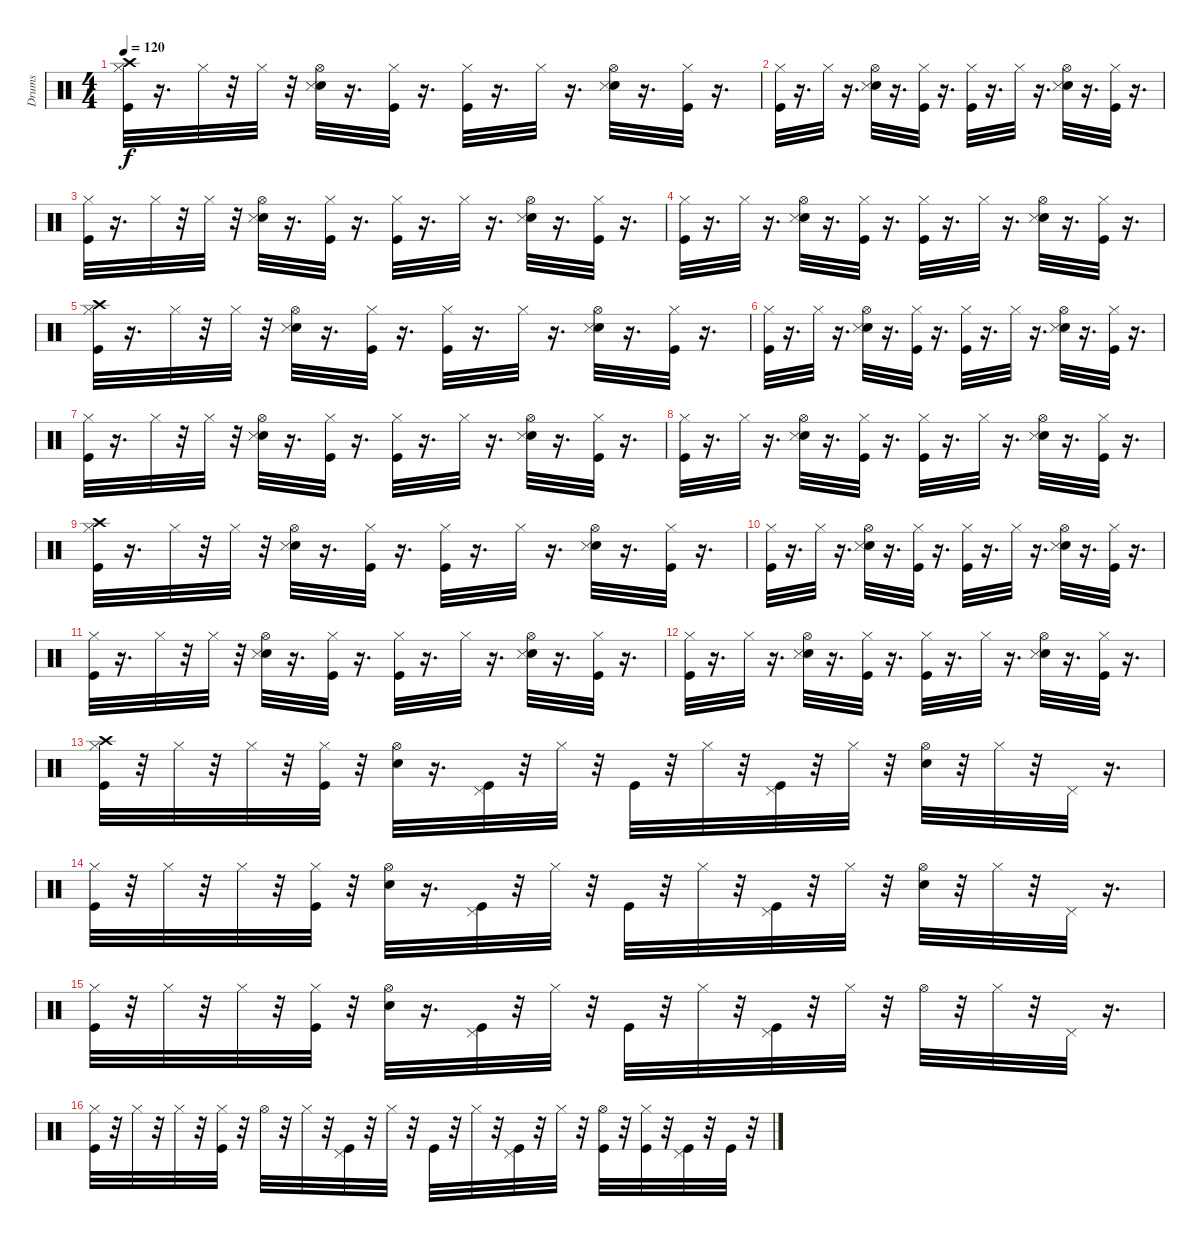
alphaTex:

\track ("Drums" "Drums") {instrument percussion}
\staff {score}
\articulation defaults
\ts (4 4)
\tempo 120
\clef neutral
\ks c
("Crash high (hit)" "Hi-Hat (closed)" "Kick (hit)").32{dy f} r.16{d} "Hi-Hat (closed)".32 r.32 "Hi-Hat (closed)".32 r.32 ("Snare (hit) 2" "Hi-Hat (open)" "Snare (side stick) 3").32 r.16{d} ("Hi-Hat (closed)" "Kick (hit)").32 r.16{d} ("Hi-Hat (closed)" "Kick (hit)").32 r.16{d} "Hi-Hat (closed)".32 r.16{d} ("Snare (hit) 2" "Hi-Hat (open)" "Snare (side stick) 3").32 r.16{d} ("Kick (hit)" "Hi-Hat (closed)").32 r.16{d} |
("Hi-Hat (closed)" "Kick (hit)").32 r.16{d} "Hi-Hat (closed)".32 r.16{d} ("Snare (hit) 2" "Hi-Hat (open)" "Snare (side stick) 3").32 r.16{d} ("Hi-Hat (closed)" "Kick (hit)").32 r.16{d} ("Hi-Hat (closed)" "Kick (hit)").32 r.16{d} "Hi-Hat (closed)".32 r.16{d} ("Snare (hit) 2" "Hi-Hat (open)" "Snare (side stick) 3").32 r.16{d} ("Kick (hit)" "Hi-Hat (closed)").32 r.16{d} |
("Hi-Hat (closed)" "Kick (hit)").32 r.16{d} "Hi-Hat (closed)".32 r.32 "Hi-Hat (closed)".32 r.32 ("Snare (hit) 2" "Hi-Hat (open)" "Snare (side stick) 3").32 r.16{d} ("Hi-Hat (closed)" "Kick (hit)").32 r.16{d} ("Hi-Hat (closed)" "Kick (hit)").32 r.16{d} "Hi-Hat (closed)".32 r.16{d} ("Snare (hit) 2" "Hi-Hat (open)" "Snare (side stick) 3").32 r.16{d} ("Kick (hit)" "Hi-Hat (closed)").32 r.16{d} |
("Hi-Hat (closed)" "Kick (hit)").32 r.16{d} "Hi-Hat (closed)".32 r.16{d} ("Snare (hit) 2" "Hi-Hat (open)" "Snare (side stick) 3").32 r.16{d} ("Hi-Hat (closed)" "Kick (hit)").32 r.16{d} ("Hi-Hat (closed)" "Kick (hit)").32 r.16{d} "Hi-Hat (closed)".32 r.16{d} ("Snare (hit) 2" "Hi-Hat (open)" "Snare (side stick) 3").32 r.16{d} ("Kick (hit)" "Hi-Hat (closed)").32 r.16{d} |
("Crash high (hit)" "Hi-Hat (closed)" "Kick (hit)").32 r.16{d} "Hi-Hat (closed)".32 r.32 "Hi-Hat (closed)".32 r.32 ("Snare (hit) 2" "Hi-Hat (open)" "Snare (side stick) 3").32 r.16{d} ("Hi-Hat (closed)" "Kick (hit)").32 r.16{d} ("Hi-Hat (closed)" "Kick (hit)").32 r.16{d} "Hi-Hat (closed)".32 r.16{d} ("Snare (hit) 2" "Hi-Hat (open)" "Snare (side stick) 3").32 r.16{d} ("Kick (hit)" "Hi-Hat (closed)").32 r.16{d} |
("Hi-Hat (closed)" "Kick (hit)").32 r.16{d} "Hi-Hat (closed)".32 r.16{d} ("Snare (hit) 2" "Hi-Hat (open)" "Snare (side stick) 3").32 r.16{d} ("Hi-Hat (closed)" "Kick (hit)").32 r.16{d} ("Hi-Hat (closed)" "Kick (hit)").32 r.16{d} "Hi-Hat (closed)".32 r.16{d} ("Snare (hit) 2" "Hi-Hat (open)" "Snare (side stick) 3").32 r.16{d} ("Kick (hit)" "Hi-Hat (closed)").32 r.16{d} |
("Hi-Hat (closed)" "Kick (hit)").32 r.16{d} "Hi-Hat (closed)".32 r.32 "Hi-Hat (closed)".32 r.32 ("Snare (hit) 2" "Hi-Hat (open)" "Snare (side stick) 3").32 r.16{d} ("Hi-Hat (closed)" "Kick (hit)").32 r.16{d} ("Hi-Hat (closed)" "Kick (hit)").32 r.16{d} "Hi-Hat (closed)".32 r.16{d} ("Snare (hit) 2" "Hi-Hat (open)" "Snare (side stick) 3").32 r.16{d} ("Kick (hit)" "Hi-Hat (closed)").32 r.16{d} |
("Hi-Hat (closed)" "Kick (hit)").32 r.16{d} "Hi-Hat (closed)".32 r.16{d} ("Snare (hit) 2" "Hi-Hat (open)" "Snare (side stick) 3").32 r.16{d} ("Hi-Hat (closed)" "Kick (hit)").32 r.16{d} ("Hi-Hat (closed)" "Kick (hit)").32 r.16{d} "Hi-Hat (closed)".32 r.16{d} ("Snare (hit) 2" "Hi-Hat (open)" "Snare (side stick) 3").32 r.16{d} ("Kick (hit)" "Hi-Hat (closed)").32 r.16{d} |
("Crash high (hit)" "Hi-Hat (closed)" "Kick (hit)").32 r.16{d} "Hi-Hat (closed)".32 r.32 "Hi-Hat (closed)".32 r.32 ("Snare (hit) 2" "Hi-Hat (open)" "Snare (side stick) 3").32 r.16{d} ("Hi-Hat (closed)" "Kick (hit)").32 r.16{d} ("Hi-Hat (closed)" "Kick (hit)").32 r.16{d} "Hi-Hat (closed)".32 r.16{d} ("Snare (hit) 2" "Hi-Hat (open)" "Snare (side stick) 3").32 r.16{d} ("Kick (hit)" "Hi-Hat (closed)").32 r.16{d} |
("Hi-Hat (closed)" "Kick (hit)").32 r.16{d} "Hi-Hat (closed)".32 r.16{d} ("Snare (hit) 2" "Hi-Hat (open)" "Snare (side stick) 3").32 r.16{d} ("Hi-Hat (closed)" "Kick (hit)").32 r.16{d} ("Hi-Hat (closed)" "Kick (hit)").32 r.16{d} "Hi-Hat (closed)".32 r.16{d} ("Snare (hit) 2" "Hi-Hat (open)" "Snare (side stick) 3").32 r.16{d} ("Kick (hit)" "Hi-Hat (closed)").32 r.16{d} |
("Hi-Hat (closed)" "Kick (hit)").32 r.16{d} "Hi-Hat (closed)".32 r.32 "Hi-Hat (closed)".32 r.32 ("Snare (hit) 2" "Hi-Hat (open)" "Snare (side stick) 3").32 r.16{d} ("Hi-Hat (closed)" "Kick (hit)").32 r.16{d} ("Hi-Hat (closed)" "Kick (hit)").32 r.16{d} "Hi-Hat (closed)".32 r.16{d} ("Snare (hit) 2" "Hi-Hat (open)" "Snare (side stick) 3").32 r.16{d} ("Kick (hit)" "Hi-Hat (closed)").32 r.16{d} |
("Hi-Hat (closed)" "Kick (hit)").32 r.16{d} "Hi-Hat (closed)".32 r.16{d} ("Snare (hit) 2" "Hi-Hat (open)" "Snare (side stick) 3").32 r.16{d} ("Hi-Hat (closed)" "Kick (hit)").32 r.16{d} ("Hi-Hat (closed)" "Kick (hit)").32 r.16{d} "Hi-Hat (closed)".32 r.16{d} ("Snare (hit) 2" "Hi-Hat (open)" "Snare (side stick) 3").32 r.16{d} ("Kick (hit)" "Hi-Hat (closed)").32 r.16{d} |
("Crash high (hit)" "Hi-Hat (closed)" "Kick (hit)").32 r.32 "Hi-Hat (closed)".32 r.32 "Hi-Hat (closed)".32 r.32 ("Kick (hit)" "Hi-Hat (closed)").32 r.32 ("Hi-Hat (open)" "Snare (hit) 2").32 r.16{d} ("Pedal Hi-Hat (hit)" "Kick (hit)").32 r.32 "Hi-Hat (closed)".32 r.32 "Kick (hit)".32 r.32 "Hi-Hat (closed)".32 r.32 ("Kick (hit)" "Pedal Hi-Hat (hit)").32 r.32 "Hi-Hat (closed)".32 r.32 ("Hi-Hat (open)" "Snare (hit) 2").32 r.32 "Hi-Hat (closed)".32 r.32 "Pedal Hi-Hat (hit)".32 r.16{d} |
("Hi-Hat (closed)" "Kick (hit)").32 r.32 "Hi-Hat (closed)".32 r.32 "Hi-Hat (closed)".32 r.32 ("Kick (hit)" "Hi-Hat (closed)").32 r.32 ("Hi-Hat (open)" "Snare (hit) 2").32 r.16{d} ("Pedal Hi-Hat (hit)" "Kick (hit)").32 r.32 "Hi-Hat (closed)".32 r.32 "Kick (hit)".32 r.32 "Hi-Hat (closed)".32 r.32 ("Kick (hit)" "Pedal Hi-Hat (hit)").32 r.32 "Hi-Hat (closed)".32 r.32 ("Hi-Hat (open)" "Snare (hit) 2").32 r.32 "Hi-Hat (closed)".32 r.32 "Pedal Hi-Hat (hit)".32 r.16{d} |
("Hi-Hat (closed)" "Kick (hit)").32 r.32 "Hi-Hat (closed)".32 r.32 "Hi-Hat (closed)".32 r.32 ("Kick (hit)" "Hi-Hat (closed)").32 r.32 ("Hi-Hat (open)" "Snare (hit) 2").32 r.16{d} ("Pedal Hi-Hat (hit)" "Kick (hit)").32 r.32 "Hi-Hat (closed)".32 r.32 "Kick (hit)".32 r.32 "Hi-Hat (closed)".32 r.32 ("Kick (hit)" "Pedal Hi-Hat (hit)").32 r.32 "Hi-Hat (closed)".32 r.32 "Hi-Hat (open)".32 r.32 "Hi-Hat (closed)".32 r.32 "Pedal Hi-Hat (hit)".32 r.16{d} |
("Hi-Hat (closed)" "Kick (hit)").32 r.32 "Hi-Hat (closed)".32 r.32 "Hi-Hat (closed)".32 r.32 ("Kick (hit)" "Hi-Hat (closed)").32 r.32 "Hi-Hat (open)".32 r.32 "Hi-Hat (closed)".32 r.32 ("Pedal Hi-Hat (hit)" "Kick (hit)").32 r.32 "Hi-Hat (closed)".32 r.32 "Kick (hit)".32 r.32 "Hi-Hat (closed)".32 r.32 ("Kick (hit)" "Pedal Hi-Hat (hit)").32 r.32 "Hi-Hat (closed)".32 r.32 ("Kick (hit)" "Hi-Hat (open)").32 r.32 ("Kick (hit)" "Hi-Hat (closed)").32 r.32 ("Kick (hit)" "Pedal Hi-Hat (hit)").32 r.32 "Kick (hit)".32 r.32
